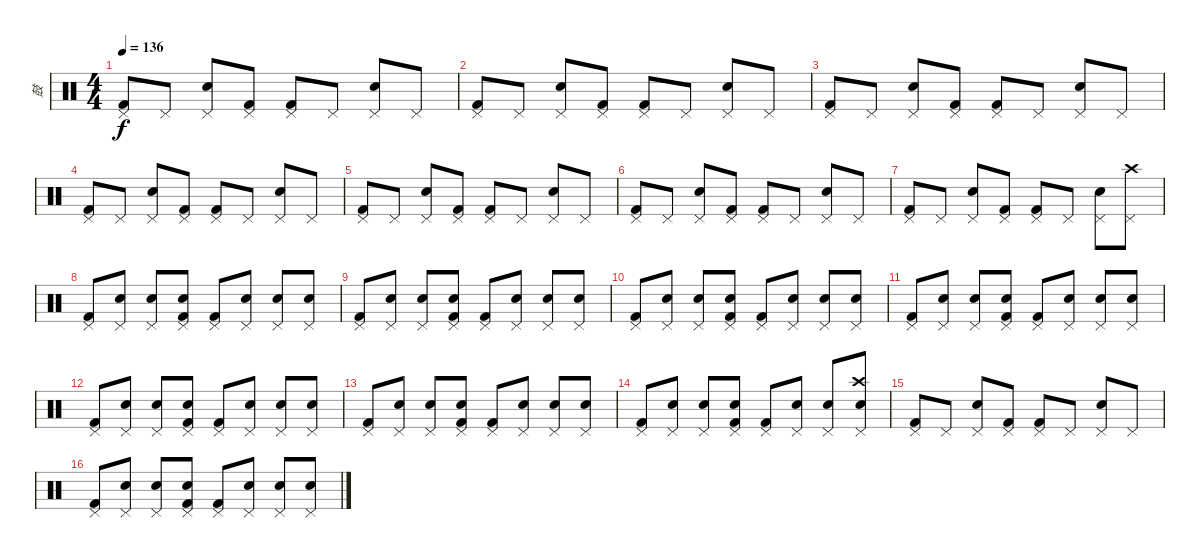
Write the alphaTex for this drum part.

\track ("鼓" "鼓") {instrument percussion}
\staff {score}
\articulation defaults
\ts (4 4)
\tempo 136
\clef neutral
\ks c
("Pedal Hi-Hat (hit)" "Kick (hit) 2").8{dy f} "Pedal Hi-Hat (hit)".8 ("Pedal Hi-Hat (hit)" "Electric Snare (hit)").8 ("Pedal Hi-Hat (hit)" "Kick (hit) 2").8 ("Pedal Hi-Hat (hit)" "Kick (hit) 2").8 "Pedal Hi-Hat (hit)".8 ("Pedal Hi-Hat (hit)" "Electric Snare (hit)").8 "Pedal Hi-Hat (hit)".8 |
("Pedal Hi-Hat (hit)" "Kick (hit) 2").8 "Pedal Hi-Hat (hit)".8 ("Pedal Hi-Hat (hit)" "Electric Snare (hit)").8 ("Pedal Hi-Hat (hit)" "Kick (hit) 2").8 ("Pedal Hi-Hat (hit)" "Kick (hit) 2").8 "Pedal Hi-Hat (hit)".8 ("Pedal Hi-Hat (hit)" "Electric Snare (hit)").8 "Pedal Hi-Hat (hit)".8 |
("Pedal Hi-Hat (hit)" "Kick (hit) 2").8 "Pedal Hi-Hat (hit)".8 ("Pedal Hi-Hat (hit)" "Electric Snare (hit)").8 ("Pedal Hi-Hat (hit)" "Kick (hit) 2").8 ("Pedal Hi-Hat (hit)" "Kick (hit) 2").8 "Pedal Hi-Hat (hit)".8 ("Pedal Hi-Hat (hit)" "Electric Snare (hit)").8 "Pedal Hi-Hat (hit)".8 |
("Pedal Hi-Hat (hit)" "Kick (hit) 2").8 "Pedal Hi-Hat (hit)".8 ("Pedal Hi-Hat (hit)" "Electric Snare (hit)").8 ("Pedal Hi-Hat (hit)" "Kick (hit) 2").8 ("Pedal Hi-Hat (hit)" "Kick (hit) 2").8 "Pedal Hi-Hat (hit)".8 ("Pedal Hi-Hat (hit)" "Electric Snare (hit)").8 "Pedal Hi-Hat (hit)".8 |
("Pedal Hi-Hat (hit)" "Kick (hit) 2").8 "Pedal Hi-Hat (hit)".8 ("Pedal Hi-Hat (hit)" "Electric Snare (hit)").8 ("Pedal Hi-Hat (hit)" "Kick (hit) 2").8 ("Pedal Hi-Hat (hit)" "Kick (hit) 2").8 "Pedal Hi-Hat (hit)".8 ("Pedal Hi-Hat (hit)" "Electric Snare (hit)").8 "Pedal Hi-Hat (hit)".8 |
("Pedal Hi-Hat (hit)" "Kick (hit) 2").8 "Pedal Hi-Hat (hit)".8 ("Pedal Hi-Hat (hit)" "Electric Snare (hit)").8 ("Pedal Hi-Hat (hit)" "Kick (hit) 2").8 ("Pedal Hi-Hat (hit)" "Kick (hit) 2").8 "Pedal Hi-Hat (hit)".8 ("Pedal Hi-Hat (hit)" "Electric Snare (hit)").8 "Pedal Hi-Hat (hit)".8 |
("Pedal Hi-Hat (hit)" "Kick (hit) 2").8 "Pedal Hi-Hat (hit)".8 ("Pedal Hi-Hat (hit)" "Electric Snare (hit)").8 ("Pedal Hi-Hat (hit)" "Kick (hit) 2").8 ("Pedal Hi-Hat (hit)" "Kick (hit) 2").8 "Pedal Hi-Hat (hit)".8 ("Pedal Hi-Hat (hit)" "Electric Snare (hit)").8 ("Pedal Hi-Hat (hit)" "Crash high (hit)").8 |
("Pedal Hi-Hat (hit)" "Kick (hit) 2").8 ("Metronome (bell)" "Pedal Hi-Hat (hit)").8 ("Pedal Hi-Hat (hit)" "Electric Snare (hit)").8 ("Metronome (bell)" "Pedal Hi-Hat (hit)" "Kick (hit) 2").8 ("Pedal Hi-Hat (hit)" "Kick (hit) 2").8 ("Metronome (bell)" "Pedal Hi-Hat (hit)").8 ("Pedal Hi-Hat (hit)" "Electric Snare (hit)").8 ("Metronome (bell)" "Pedal Hi-Hat (hit)").8 |
("Pedal Hi-Hat (hit)" "Kick (hit) 2").8 ("Metronome (bell)" "Pedal Hi-Hat (hit)").8 ("Pedal Hi-Hat (hit)" "Electric Snare (hit)").8 ("Metronome (bell)" "Pedal Hi-Hat (hit)" "Kick (hit) 2").8 ("Pedal Hi-Hat (hit)" "Kick (hit) 2").8 ("Metronome (bell)" "Pedal Hi-Hat (hit)").8 ("Pedal Hi-Hat (hit)" "Electric Snare (hit)").8 ("Metronome (bell)" "Pedal Hi-Hat (hit)").8 |
("Pedal Hi-Hat (hit)" "Kick (hit) 2").8 ("Metronome (bell)" "Pedal Hi-Hat (hit)").8 ("Pedal Hi-Hat (hit)" "Electric Snare (hit)").8 ("Metronome (bell)" "Pedal Hi-Hat (hit)" "Kick (hit) 2").8 ("Pedal Hi-Hat (hit)" "Kick (hit) 2").8 ("Metronome (bell)" "Pedal Hi-Hat (hit)").8 ("Pedal Hi-Hat (hit)" "Electric Snare (hit)").8 ("Metronome (bell)" "Pedal Hi-Hat (hit)").8 |
("Pedal Hi-Hat (hit)" "Kick (hit) 2").8 ("Metronome (bell)" "Pedal Hi-Hat (hit)").8 ("Pedal Hi-Hat (hit)" "Electric Snare (hit)").8 ("Metronome (bell)" "Pedal Hi-Hat (hit)" "Kick (hit) 2").8 ("Pedal Hi-Hat (hit)" "Kick (hit) 2").8 ("Metronome (bell)" "Pedal Hi-Hat (hit)").8 ("Pedal Hi-Hat (hit)" "Electric Snare (hit)").8 ("Metronome (bell)" "Pedal Hi-Hat (hit)").8 |
("Pedal Hi-Hat (hit)" "Kick (hit) 2").8 ("Metronome (bell)" "Pedal Hi-Hat (hit)").8 ("Pedal Hi-Hat (hit)" "Electric Snare (hit)").8 ("Metronome (bell)" "Pedal Hi-Hat (hit)" "Kick (hit) 2").8 ("Pedal Hi-Hat (hit)" "Kick (hit) 2").8 ("Metronome (bell)" "Pedal Hi-Hat (hit)").8 ("Pedal Hi-Hat (hit)" "Electric Snare (hit)").8 ("Metronome (bell)" "Pedal Hi-Hat (hit)").8 |
("Pedal Hi-Hat (hit)" "Kick (hit) 2").8 ("Metronome (bell)" "Pedal Hi-Hat (hit)").8 ("Pedal Hi-Hat (hit)" "Electric Snare (hit)").8 ("Metronome (bell)" "Pedal Hi-Hat (hit)" "Kick (hit) 2").8 ("Pedal Hi-Hat (hit)" "Kick (hit) 2").8 ("Metronome (bell)" "Pedal Hi-Hat (hit)").8 ("Pedal Hi-Hat (hit)" "Electric Snare (hit)").8 ("Metronome (bell)" "Pedal Hi-Hat (hit)").8 |
("Pedal Hi-Hat (hit)" "Kick (hit) 2").8 ("Metronome (bell)" "Pedal Hi-Hat (hit)").8 ("Pedal Hi-Hat (hit)" "Electric Snare (hit)").8 ("Metronome (bell)" "Pedal Hi-Hat (hit)" "Kick (hit) 2").8 ("Pedal Hi-Hat (hit)" "Kick (hit) 2").8 ("Metronome (bell)" "Pedal Hi-Hat (hit)").8 ("Pedal Hi-Hat (hit)" "Electric Snare (hit)").8 ("Metronome (bell)" "Pedal Hi-Hat (hit)" "Crash high (hit)").8 |
("Pedal Hi-Hat (hit)" "Kick (hit) 2").8 "Pedal Hi-Hat (hit)".8 ("Pedal Hi-Hat (hit)" "Electric Snare (hit)").8 ("Pedal Hi-Hat (hit)" "Kick (hit) 2").8 ("Pedal Hi-Hat (hit)" "Kick (hit) 2").8 "Pedal Hi-Hat (hit)".8 ("Pedal Hi-Hat (hit)" "Electric Snare (hit)").8 "Pedal Hi-Hat (hit)".8 |
("Pedal Hi-Hat (hit)" "Kick (hit) 2").8 ("Metronome (bell)" "Pedal Hi-Hat (hit)").8 ("Pedal Hi-Hat (hit)" "Electric Snare (hit)").8 ("Metronome (bell)" "Pedal Hi-Hat (hit)" "Kick (hit) 2").8 ("Pedal Hi-Hat (hit)" "Kick (hit) 2").8 ("Metronome (bell)" "Pedal Hi-Hat (hit)").8 ("Pedal Hi-Hat (hit)" "Electric Snare (hit)").8 ("Metronome (bell)" "Pedal Hi-Hat (hit)").8
